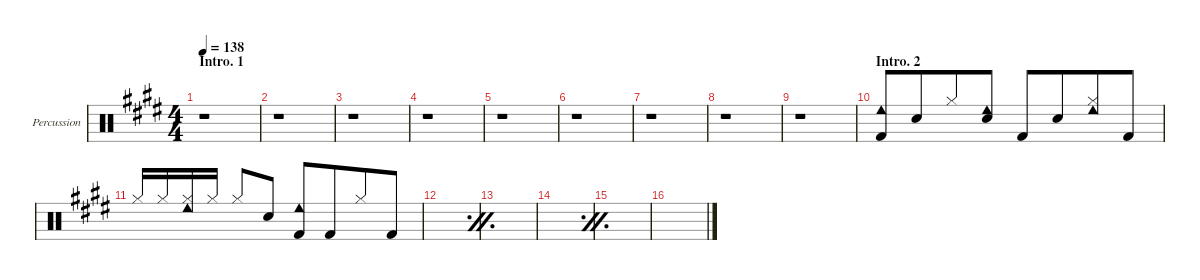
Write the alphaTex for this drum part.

\defaultSystemsLayout 4
\hideDynamics
\bracketExtendMode nobrackets
\firstSystemTrackNameOrientation horizontal
\track ("Percussion" "Percussion") {defaultSystemsLayout 4 mute instrument percussion}
\staff {score}
\articulation defaults
\ts (4 4)
\beaming (8 4 4)
\section ("" "Intro. 1")
\tempo 138
\clef neutral
\scale
0.265908
\ks c#minor
r.1{dy f beam Down} |
\scale
0.244697 r.1{beam Down} |
\scale
0.244697 r.1{beam Down} |
\scale
0.244698 r.1{beam Down} |
r.1{beam Down} |
r.1{beam Down} |
r.1{beam Down} |
r.1{beam Down} |
r.1{beam Down} |
\section ("" "Intro. 2")
\scale
0.266618 ("Kick (hit) 2"{acc forcenatural} "Cowbell low (hit)"{acc forcenatural}).8{beam Up} "Snare (hit) 2"{acc forcenatural}.8{beam Up} "Hi-Hat (closed)"{acc forcenatural}.8{beam Up} ("Snare (hit) 2"{acc forcenatural} "Cowbell low (hit)"{acc forcenatural}).8{beam Up} "Kick (hit) 2"{acc forcenatural}.8{beam Up} "Snare (hit) 2"{acc forcenatural}.8{beam Up} ("Hi-Hat (closed)"{acc forcenatural} "Cowbell low (hit)"{acc forcenatural}).8{beam Up} "Kick (hit) 2"{acc forcenatural}.8{beam Up} |
\scale
0.244461 "Hi-Hat (closed)"{acc forcenatural}.16{beam Up} "Hi-Hat (closed)"{acc forcenatural}.16{beam Up} ("Hi-Hat (closed)"{acc forcenatural} "Cowbell low (hit)"{acc forcenatural}).16{beam Up} "Hi-Hat (closed)"{acc forcenatural}.16{beam Up beam split} "Hi-Hat (closed)"{acc forcenatural}.8{beam Up} "Snare (hit) 2"{acc forcenatural}.8{beam Up} ("Kick (hit) 2"{acc forcenatural} "Cowbell low (hit)"{acc forcenatural}).8{beam Up} "Kick (hit) 2"{acc forcenatural}.8{beam Up} "Hi-Hat (closed)"{acc forcenatural}.8{beam Up} "Kick (hit) 2"{acc forcenatural}.8{beam Up} |
\simile firstofdouble
\scale
0.244461 |
\simile secondofdouble
\scale
0.244461 |
\simile firstofdouble
\scale
0.266618 |
\simile secondofdouble
\scale
0.244461 |
\simile firstofdouble
\scale
0.244461
